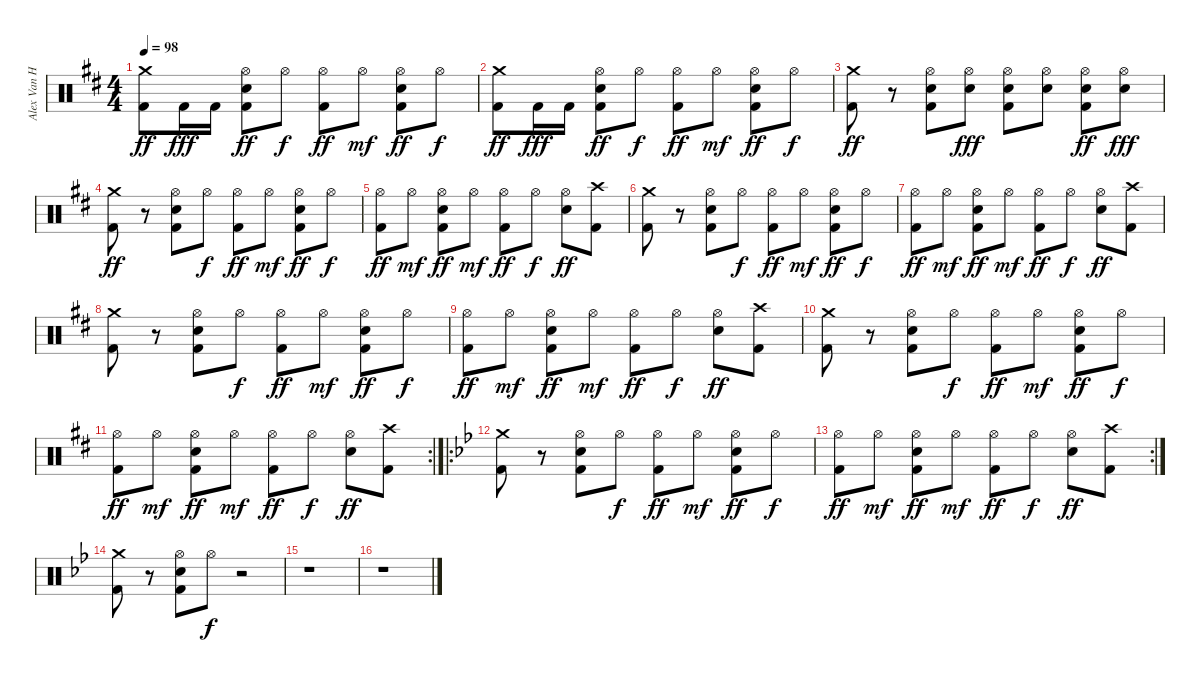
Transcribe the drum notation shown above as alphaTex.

\track ("Alex Van Halen" "Alex Van H") {instrument percussion}
\staff {score}
\articulation defaults
\ts (4 4)
\tempo 98
\clef neutral
\ks bminor
("Kick (hit) 2" "Crash medium (hit)").8{dy ff} "Kick (hit) 2".16{dy fff} "Kick (hit) 2".16 ("Hi-Hat (open)" "Kick (hit) 2" "Electric Snare (hit)").8{dy ff} "Hi-Hat (open)".8{dy f} ("Kick (hit) 2" "Hi-Hat (open)").8{dy ff} "Hi-Hat (open)".8{dy mf} ("Kick (hit) 2" "Hi-Hat (open)" "Electric Snare (hit)").8{dy ff} "Hi-Hat (open)".8{dy f} |
("Kick (hit) 2" "Crash medium (hit)").8{dy ff} "Kick (hit) 2".16{dy fff} "Kick (hit) 2".16 ("Hi-Hat (open)" "Kick (hit) 2" "Electric Snare (hit)").8{dy ff} "Hi-Hat (open)".8{dy f} ("Kick (hit) 2" "Hi-Hat (open)").8{dy ff} "Hi-Hat (open)".8{dy mf} ("Kick (hit) 2" "Hi-Hat (open)" "Electric Snare (hit)").8{dy ff} "Hi-Hat (open)".8{dy f} |
("Kick (hit) 2" "Crash medium (hit)").8{dy ff} r.8 ("Hi-Hat (open)" "Kick (hit) 2" "Electric Snare (hit)").8 ("Hi-Hat (open)" "Electric Snare (hit)").8{dy fff} ("Kick (hit) 2" "Hi-Hat (open)" "Electric Snare (hit)").8 ("Hi-Hat (open)" "Electric Snare (hit)").8 ("Kick (hit) 2" "Hi-Hat (open)" "Electric Snare (hit)").8{dy ff} ("Hi-Hat (open)" "Electric Snare (hit)").8{dy fff} |
("Kick (hit) 2" "Crash medium (hit)").8{dy ff} r.8 ("Hi-Hat (open)" "Kick (hit) 2" "Electric Snare (hit)").8 "Hi-Hat (open)".8{dy f} ("Kick (hit) 2" "Hi-Hat (open)").8{dy ff} "Hi-Hat (open)".8{dy mf} ("Kick (hit) 2" "Hi-Hat (open)" "Electric Snare (hit)").8{dy ff} "Hi-Hat (open)".8{dy f} |
("Kick (hit) 2" "Hi-Hat (open)").8{dy ff} "Hi-Hat (open)".8{dy mf} ("Hi-Hat (open)" "Kick (hit) 2" "Electric Snare (hit)").8{dy ff} "Hi-Hat (open)".8{dy mf} ("Hi-Hat (open)" "Kick (hit) 2").8{dy ff} "Hi-Hat (open)".8{dy f} ("Hi-Hat (open)" "Electric Snare (hit)").8{dy ff} ("Crash high (hit)" "Kick (hit) 2").8 |
("Kick (hit) 2" "Crash medium (hit)").8 r.8 ("Hi-Hat (open)" "Kick (hit) 2" "Electric Snare (hit)").8 "Hi-Hat (open)".8{dy f} ("Kick (hit) 2" "Hi-Hat (open)").8{dy ff} "Hi-Hat (open)".8{dy mf} ("Kick (hit) 2" "Hi-Hat (open)" "Electric Snare (hit)").8{dy ff} "Hi-Hat (open)".8{dy f} |
("Kick (hit) 2" "Hi-Hat (open)").8{dy ff} "Hi-Hat (open)".8{dy mf} ("Hi-Hat (open)" "Kick (hit) 2" "Electric Snare (hit)").8{dy ff} "Hi-Hat (open)".8{dy mf} ("Hi-Hat (open)" "Kick (hit) 2").8{dy ff} "Hi-Hat (open)".8{dy f} ("Hi-Hat (open)" "Electric Snare (hit)").8{dy ff} ("Crash high (hit)" "Kick (hit) 2").8 |
("Kick (hit) 2" "Crash medium (hit)").8 r.8 ("Hi-Hat (open)" "Kick (hit) 2" "Electric Snare (hit)").8 "Hi-Hat (open)".8{dy f} ("Kick (hit) 2" "Hi-Hat (open)").8{dy ff} "Hi-Hat (open)".8{dy mf} ("Kick (hit) 2" "Hi-Hat (open)" "Electric Snare (hit)").8{dy ff} "Hi-Hat (open)".8{dy f} |
("Kick (hit) 2" "Hi-Hat (open)").8{dy ff} "Hi-Hat (open)".8{dy mf} ("Hi-Hat (open)" "Kick (hit) 2" "Electric Snare (hit)").8{dy ff} "Hi-Hat (open)".8{dy mf} ("Hi-Hat (open)" "Kick (hit) 2").8{dy ff} "Hi-Hat (open)".8{dy f} ("Hi-Hat (open)" "Electric Snare (hit)").8{dy ff} ("Crash high (hit)" "Kick (hit) 2").8 |
("Kick (hit) 2" "Crash medium (hit)").8 r.8 ("Hi-Hat (open)" "Kick (hit) 2" "Electric Snare (hit)").8 "Hi-Hat (open)".8{dy f} ("Kick (hit) 2" "Hi-Hat (open)").8{dy ff} "Hi-Hat (open)".8{dy mf} ("Kick (hit) 2" "Hi-Hat (open)" "Electric Snare (hit)").8{dy ff} "Hi-Hat (open)".8{dy f} |
\rc 2
("Kick (hit) 2" "Hi-Hat (open)").8{dy ff} "Hi-Hat (open)".8{dy mf} ("Hi-Hat (open)" "Kick (hit) 2" "Electric Snare (hit)").8{dy ff} "Hi-Hat (open)".8{dy mf} ("Hi-Hat (open)" "Kick (hit) 2").8{dy ff} "Hi-Hat (open)".8{dy f} ("Hi-Hat (open)" "Electric Snare (hit)").8{dy ff} ("Crash high (hit)" "Kick (hit) 2").8 |
\ro
\ks gminor
("Kick (hit) 2" "Crash medium (hit)").8 r.8 ("Hi-Hat (open)" "Kick (hit) 2" "Electric Snare (hit)").8 "Hi-Hat (open)".8{dy f} ("Kick (hit) 2" "Hi-Hat (open)").8{dy ff} "Hi-Hat (open)".8{dy mf} ("Kick (hit) 2" "Hi-Hat (open)" "Electric Snare (hit)").8{dy ff} "Hi-Hat (open)".8{dy f} |
\rc 2
("Kick (hit) 2" "Hi-Hat (open)").8{dy ff} "Hi-Hat (open)".8{dy mf} ("Hi-Hat (open)" "Kick (hit) 2" "Electric Snare (hit)").8{dy ff} "Hi-Hat (open)".8{dy mf} ("Hi-Hat (open)" "Kick (hit) 2").8{dy ff} "Hi-Hat (open)".8{dy f} ("Hi-Hat (open)" "Electric Snare (hit)").8{dy ff} ("Crash high (hit)" "Kick (hit) 2").8 |
("Kick (hit) 2" "Crash medium (hit)").8 r.8 ("Hi-Hat (open)" "Kick (hit) 2" "Electric Snare (hit)").8 "Hi-Hat (open)".8{dy f} r.2 |
r.1 |
r.1
